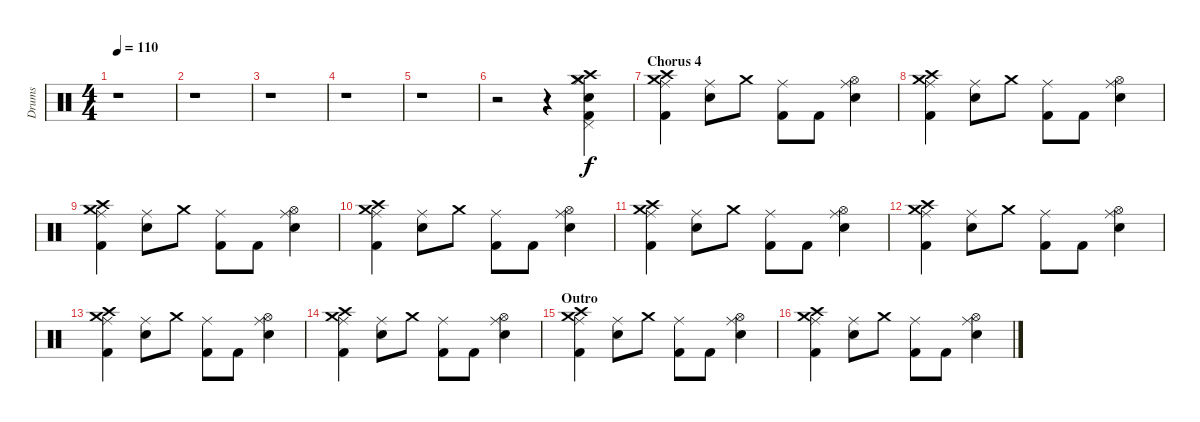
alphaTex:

\track ("Drums" "Drums") {instrument percussion}
\staff {score}
\articulation defaults
\ts (4 4)
\tempo 110
\clef neutral
\ks c
r.1{dy f} |
r.1 |
r.1{volume 15} |
r.1 |
r.1 |
r.2 r.4 ("Kick (hit) 2" "Crash medium (hit)" "Hi-Hat (closed)" "Snare (hit) 2" "Pedal Hi-Hat (hit)" "Crash high (hit)").4 |
\section ("" "Chorus 4")
("Kick (hit) 2" "Ride (middle)" "Crash high (hit)" "Crash medium (hit)").4 ("Snare (hit) 2" "Ride (middle)").8 "Crash medium (hit)".8 ("Kick (hit) 2" "Ride (middle)").8 "Kick (hit) 2".8 ("Snare (hit) 2" "Ride (middle)" "Hi-Hat (open)").4 |
("Kick (hit) 2" "Ride (middle)" "Crash high (hit)" "Crash medium (hit)").4 ("Snare (hit) 2" "Ride (middle)").8 "Crash medium (hit)".8 ("Kick (hit) 2" "Ride (middle)").8 "Kick (hit) 2".8 ("Snare (hit) 2" "Ride (middle)" "Hi-Hat (open)").4 |
("Kick (hit) 2" "Ride (middle)" "Crash high (hit)" "Crash medium (hit)").4 ("Snare (hit) 2" "Ride (middle)").8 "Crash medium (hit)".8 ("Kick (hit) 2" "Ride (middle)").8 "Kick (hit) 2".8 ("Snare (hit) 2" "Ride (middle)" "Hi-Hat (open)").4 |
("Kick (hit) 2" "Ride (middle)" "Crash high (hit)" "Crash medium (hit)").4 ("Snare (hit) 2" "Ride (middle)").8 "Crash medium (hit)".8 ("Kick (hit) 2" "Ride (middle)").8 "Kick (hit) 2".8 ("Snare (hit) 2" "Ride (middle)" "Hi-Hat (open)").4 |
("Kick (hit) 2" "Ride (middle)" "Crash high (hit)" "Crash medium (hit)").4 ("Snare (hit) 2" "Ride (middle)").8 "Crash medium (hit)".8 ("Kick (hit) 2" "Ride (middle)").8 "Kick (hit) 2".8 ("Snare (hit) 2" "Ride (middle)" "Hi-Hat (open)").4 |
("Kick (hit) 2" "Ride (middle)" "Crash high (hit)" "Crash medium (hit)").4 ("Snare (hit) 2" "Ride (middle)").8 "Crash medium (hit)".8 ("Kick (hit) 2" "Ride (middle)").8 "Kick (hit) 2".8 ("Snare (hit) 2" "Ride (middle)" "Hi-Hat (open)").4 |
("Kick (hit) 2" "Ride (middle)" "Crash high (hit)" "Crash medium (hit)").4 ("Snare (hit) 2" "Ride (middle)").8 "Crash medium (hit)".8 ("Kick (hit) 2" "Ride (middle)").8 "Kick (hit) 2".8 ("Snare (hit) 2" "Ride (middle)" "Hi-Hat (open)").4 |
("Kick (hit) 2" "Ride (middle)" "Crash high (hit)" "Crash medium (hit)").4 ("Snare (hit) 2" "Ride (middle)").8 "Crash medium (hit)".8 ("Kick (hit) 2" "Ride (middle)").8 "Kick (hit) 2".8 ("Snare (hit) 2" "Ride (middle)" "Hi-Hat (open)").4 |
\section ("" "Outro")
("Kick (hit) 2" "Ride (middle)" "Crash high (hit)" "Crash medium (hit)").4 ("Snare (hit) 2" "Ride (middle)").8 "Crash medium (hit)".8 ("Kick (hit) 2" "Ride (middle)").8 "Kick (hit) 2".8 ("Snare (hit) 2" "Ride (middle)" "Hi-Hat (open)").4 |
("Kick (hit) 2" "Ride (middle)" "Crash high (hit)" "Crash medium (hit)").4 ("Snare (hit) 2" "Ride (middle)").8 "Crash medium (hit)".8 ("Kick (hit) 2" "Ride (middle)").8 "Kick (hit) 2".8 ("Snare (hit) 2" "Ride (middle)" "Hi-Hat (open)").4
